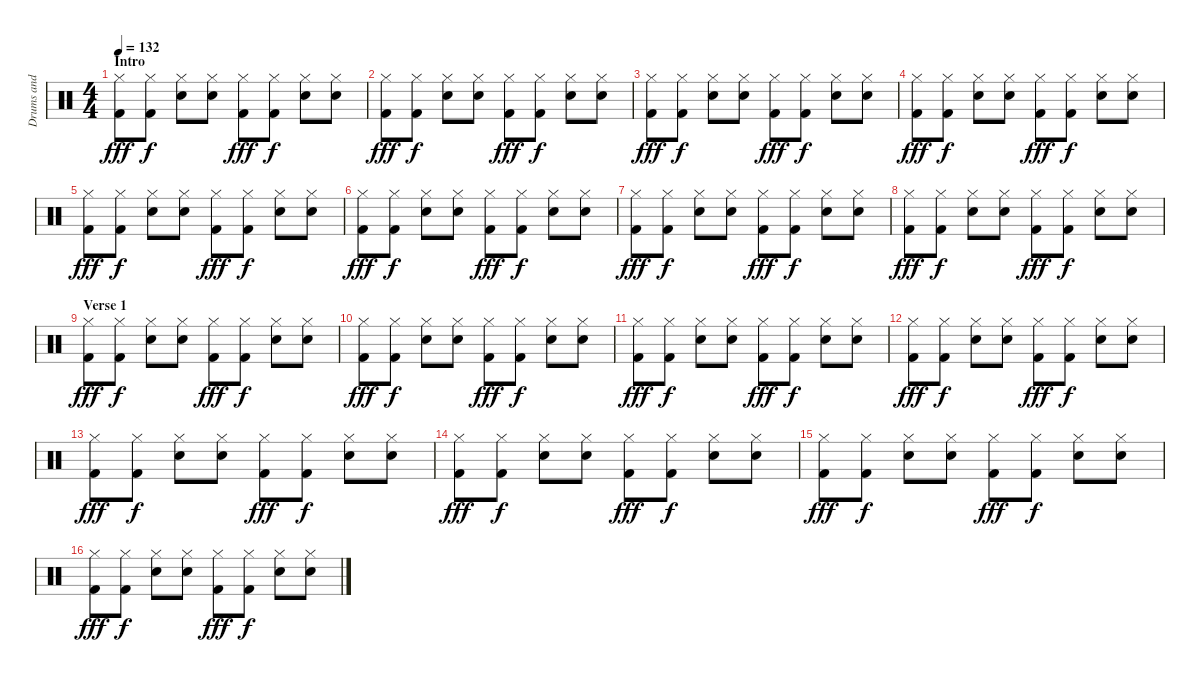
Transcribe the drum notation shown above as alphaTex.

\track ("Drums and Percussion" "Drums and ") {instrument percussion}
\staff {score}
\articulation defaults
\ts (4 4)
\section ("" "Intro")
\tempo 132
\clef neutral
\ks c
("Hi-Hat (closed)" "Kick (hit) 2").8{dy fff} ("Hi-Hat (closed)" "Kick (hit) 2").8{dy f} ("Hi-Hat (closed)" "Hand Clap (hit)").8 ("Hi-Hat (closed)" "Hand Clap (hit)").8 ("Hi-Hat (closed)" "Kick (hit) 2").8{dy fff} ("Hi-Hat (closed)" "Kick (hit) 2").8{dy f} ("Hi-Hat (closed)" "Hand Clap (hit)").8 ("Hi-Hat (closed)" "Hand Clap (hit)").8 |
("Hi-Hat (closed)" "Kick (hit) 2").8{dy fff} ("Hi-Hat (closed)" "Kick (hit) 2").8{dy f} ("Hi-Hat (closed)" "Hand Clap (hit)").8 ("Hi-Hat (closed)" "Hand Clap (hit)").8 ("Hi-Hat (closed)" "Kick (hit) 2").8{dy fff} ("Hi-Hat (closed)" "Kick (hit) 2").8{dy f} ("Hi-Hat (closed)" "Hand Clap (hit)").8 ("Hi-Hat (closed)" "Hand Clap (hit)").8 |
("Hi-Hat (closed)" "Kick (hit) 2").8{dy fff} ("Hi-Hat (closed)" "Kick (hit) 2").8{dy f} ("Hi-Hat (closed)" "Hand Clap (hit)").8 ("Hi-Hat (closed)" "Hand Clap (hit)").8 ("Hi-Hat (closed)" "Kick (hit) 2").8{dy fff} ("Hi-Hat (closed)" "Kick (hit) 2").8{dy f} ("Hi-Hat (closed)" "Hand Clap (hit)").8 ("Hi-Hat (closed)" "Hand Clap (hit)").8 |
("Hi-Hat (closed)" "Kick (hit) 2").8{dy fff} ("Hi-Hat (closed)" "Kick (hit) 2").8{dy f} ("Hi-Hat (closed)" "Hand Clap (hit)").8 ("Hi-Hat (closed)" "Hand Clap (hit)").8 ("Hi-Hat (closed)" "Kick (hit) 2").8{dy fff} ("Hi-Hat (closed)" "Kick (hit) 2").8{dy f} ("Hi-Hat (closed)" "Hand Clap (hit)").8 ("Hi-Hat (closed)" "Hand Clap (hit)").8 |
("Hi-Hat (closed)" "Kick (hit) 2").8{dy fff} ("Hi-Hat (closed)" "Kick (hit) 2").8{dy f} ("Hi-Hat (closed)" "Hand Clap (hit)").8 ("Hi-Hat (closed)" "Hand Clap (hit)").8 ("Hi-Hat (closed)" "Kick (hit) 2").8{dy fff} ("Hi-Hat (closed)" "Kick (hit) 2").8{dy f} ("Hi-Hat (closed)" "Hand Clap (hit)").8 ("Hi-Hat (closed)" "Hand Clap (hit)").8 |
("Hi-Hat (closed)" "Kick (hit) 2").8{dy fff} ("Hi-Hat (closed)" "Kick (hit) 2").8{dy f} ("Hi-Hat (closed)" "Hand Clap (hit)").8 ("Hi-Hat (closed)" "Hand Clap (hit)").8 ("Hi-Hat (closed)" "Kick (hit) 2").8{dy fff} ("Hi-Hat (closed)" "Kick (hit) 2").8{dy f} ("Hi-Hat (closed)" "Hand Clap (hit)").8 ("Hi-Hat (closed)" "Hand Clap (hit)").8 |
("Hi-Hat (closed)" "Kick (hit) 2").8{dy fff} ("Hi-Hat (closed)" "Kick (hit) 2").8{dy f} ("Hi-Hat (closed)" "Hand Clap (hit)").8 ("Hi-Hat (closed)" "Hand Clap (hit)").8 ("Hi-Hat (closed)" "Kick (hit) 2").8{dy fff} ("Hi-Hat (closed)" "Kick (hit) 2").8{dy f} ("Hi-Hat (closed)" "Hand Clap (hit)").8 ("Hi-Hat (closed)" "Hand Clap (hit)").8 |
("Hi-Hat (closed)" "Kick (hit) 2").8{dy fff} ("Hi-Hat (closed)" "Kick (hit) 2").8{dy f} ("Hi-Hat (closed)" "Hand Clap (hit)").8 ("Hi-Hat (closed)" "Hand Clap (hit)").8 ("Hi-Hat (closed)" "Kick (hit) 2").8{dy fff} ("Hi-Hat (closed)" "Kick (hit) 2").8{dy f} ("Hi-Hat (closed)" "Hand Clap (hit)").8 ("Hi-Hat (closed)" "Hand Clap (hit)").8 |
\section ("" "Verse 1")
("Hi-Hat (closed)" "Kick (hit) 2").8{dy fff} ("Hi-Hat (closed)" "Kick (hit) 2").8{dy f} ("Hi-Hat (closed)" "Hand Clap (hit)").8 ("Hi-Hat (closed)" "Hand Clap (hit)").8 ("Hi-Hat (closed)" "Kick (hit) 2").8{dy fff} ("Hi-Hat (closed)" "Kick (hit) 2").8{dy f} ("Hi-Hat (closed)" "Hand Clap (hit)").8 ("Hi-Hat (closed)" "Hand Clap (hit)").8 |
("Hi-Hat (closed)" "Kick (hit) 2").8{dy fff} ("Hi-Hat (closed)" "Kick (hit) 2").8{dy f} ("Hi-Hat (closed)" "Hand Clap (hit)").8 ("Hi-Hat (closed)" "Hand Clap (hit)").8 ("Hi-Hat (closed)" "Kick (hit) 2").8{dy fff} ("Hi-Hat (closed)" "Kick (hit) 2").8{dy f} ("Hi-Hat (closed)" "Hand Clap (hit)").8 ("Hi-Hat (closed)" "Hand Clap (hit)").8 |
("Hi-Hat (closed)" "Kick (hit) 2").8{dy fff} ("Hi-Hat (closed)" "Kick (hit) 2").8{dy f} ("Hi-Hat (closed)" "Hand Clap (hit)").8 ("Hi-Hat (closed)" "Hand Clap (hit)").8 ("Hi-Hat (closed)" "Kick (hit) 2").8{dy fff} ("Hi-Hat (closed)" "Kick (hit) 2").8{dy f} ("Hi-Hat (closed)" "Hand Clap (hit)").8 ("Hi-Hat (closed)" "Hand Clap (hit)").8 |
("Hi-Hat (closed)" "Kick (hit) 2").8{dy fff} ("Hi-Hat (closed)" "Kick (hit) 2").8{dy f} ("Hi-Hat (closed)" "Hand Clap (hit)").8 ("Hi-Hat (closed)" "Hand Clap (hit)").8 ("Hi-Hat (closed)" "Kick (hit) 2").8{dy fff} ("Hi-Hat (closed)" "Kick (hit) 2").8{dy f} ("Hi-Hat (closed)" "Hand Clap (hit)").8 ("Hi-Hat (closed)" "Hand Clap (hit)").8 |
("Hi-Hat (closed)" "Kick (hit) 2").8{dy fff} ("Hi-Hat (closed)" "Kick (hit) 2").8{dy f} ("Hi-Hat (closed)" "Hand Clap (hit)").8 ("Hi-Hat (closed)" "Hand Clap (hit)").8 ("Hi-Hat (closed)" "Kick (hit) 2").8{dy fff} ("Hi-Hat (closed)" "Kick (hit) 2").8{dy f} ("Hi-Hat (closed)" "Hand Clap (hit)").8 ("Hi-Hat (closed)" "Hand Clap (hit)").8 |
("Hi-Hat (closed)" "Kick (hit) 2").8{dy fff} ("Hi-Hat (closed)" "Kick (hit) 2").8{dy f} ("Hi-Hat (closed)" "Hand Clap (hit)").8 ("Hi-Hat (closed)" "Hand Clap (hit)").8 ("Hi-Hat (closed)" "Kick (hit) 2").8{dy fff} ("Hi-Hat (closed)" "Kick (hit) 2").8{dy f} ("Hi-Hat (closed)" "Hand Clap (hit)").8 ("Hi-Hat (closed)" "Hand Clap (hit)").8 |
("Hi-Hat (closed)" "Kick (hit) 2").8{dy fff} ("Hi-Hat (closed)" "Kick (hit) 2").8{dy f} ("Hi-Hat (closed)" "Hand Clap (hit)").8 ("Hi-Hat (closed)" "Hand Clap (hit)").8 ("Hi-Hat (closed)" "Kick (hit) 2").8{dy fff} ("Hi-Hat (closed)" "Kick (hit) 2").8{dy f} ("Hi-Hat (closed)" "Hand Clap (hit)").8 ("Hi-Hat (closed)" "Hand Clap (hit)").8 |
("Hi-Hat (closed)" "Kick (hit) 2").8{dy fff} ("Hi-Hat (closed)" "Kick (hit) 2").8{dy f} ("Hi-Hat (closed)" "Hand Clap (hit)").8 ("Hi-Hat (closed)" "Hand Clap (hit)").8 ("Hi-Hat (closed)" "Kick (hit) 2").8{dy fff} ("Hi-Hat (closed)" "Kick (hit) 2").8{dy f} ("Hi-Hat (closed)" "Hand Clap (hit)").8 ("Hi-Hat (closed)" "Hand Clap (hit)").8
